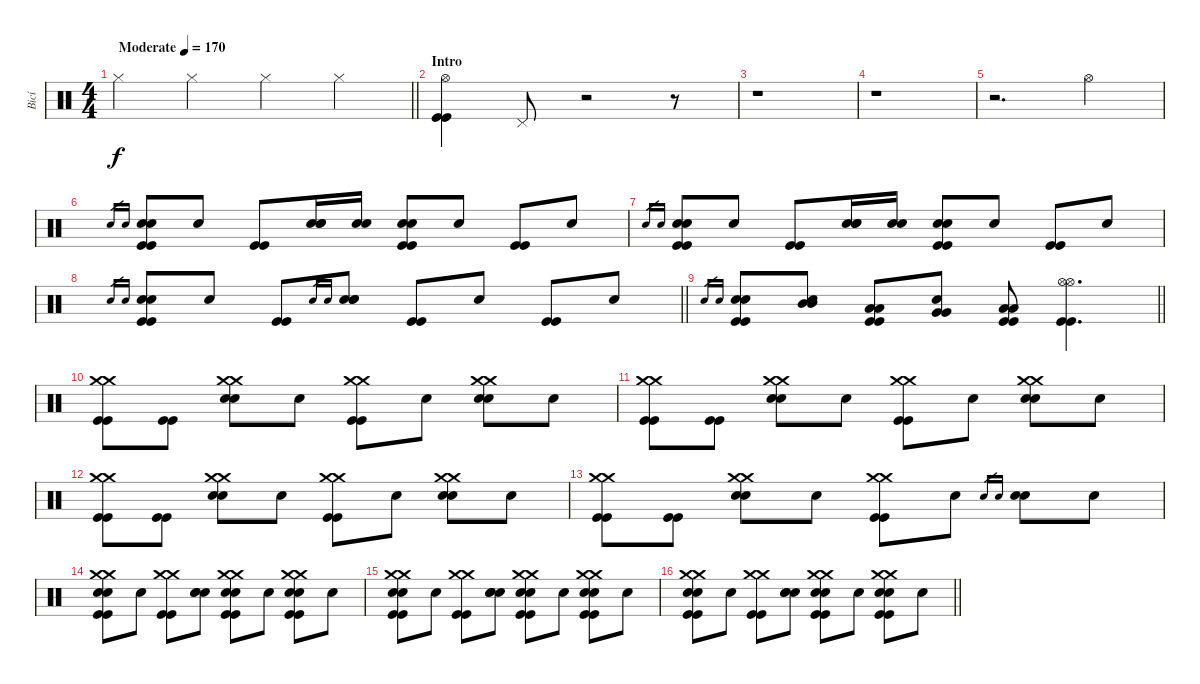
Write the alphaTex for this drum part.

\track ("Bicí" "Bicí") {instrument percussion}
\staff {score}
\articulation defaults
\ts (4 4)
\tempo (170 "Moderate")
\clef neutral
\barLineRight lightlight
\ks c "Hi-Hat (closed)".4{dy f} "Hi-Hat (closed)".4 "Hi-Hat (closed)".4 "Hi-Hat (closed)".4
|
\section ("" "Intro")
("Hi-Hat (open)" "Kick (hit)" "Kick (hit)").4 "Pedal Hi-Hat (hit)".8 r.2 r.8 |
r.1 |
r.1 |
r.2{d} "Hi-Hat (open)".4 |
"Electric Snare (hit)".16{gr} "Electric Snare (hit)".16{gr} ("Electric Snare (hit)" "Electric Snare (hit)" "Kick (hit)" "Kick (hit)").8 "Snare (hit)".8 ("Kick (hit)" "Kick (hit)").8 ("Electric Snare (hit)" "Electric Snare (hit)" "Snare (hit)").16 ("Electric Snare (hit)" "Electric Snare (hit)").16 ("Electric Snare (hit)" "Electric Snare (hit)" "Kick (hit)" "Kick (hit)").8 "Snare (hit)".8 ("Kick (hit)" "Kick (hit)").8 "Snare (hit)".8 |
"Electric Snare (hit)".16{gr} "Electric Snare (hit)".16{gr} ("Electric Snare (hit)" "Electric Snare (hit)" "Kick (hit)" "Kick (hit)").8 "Snare (hit)".8 ("Kick (hit)" "Kick (hit)").8 ("Electric Snare (hit)" "Electric Snare (hit)" "Snare (hit)").16 ("Electric Snare (hit)" "Electric Snare (hit)").16 ("Electric Snare (hit)" "Electric Snare (hit)" "Kick (hit)" "Kick (hit)").8 "Snare (hit)".8 ("Kick (hit)" "Kick (hit)").8 "Snare (hit)".8 |
\barLineRight lightlight "Electric Snare (hit)".16{gr} "Electric Snare (hit)".16{gr}
("Electric Snare (hit)" "Electric Snare (hit)" "Kick (hit)" "Kick (hit)").8 "Snare (hit)".8 ("Kick (hit)" "Kick (hit)").8 "Electric Snare (hit)".16{gr} "Electric Snare (hit)".16{gr} ("Electric Snare (hit)" "Electric Snare (hit)" "Snare (hit)").8 ("Kick (hit)" "Kick (hit)").8 "Snare (hit)".8 ("Kick (hit)" "Kick (hit)").8 "Snare (hit)".8 |
\barLineRight lightlight "Electric Snare (hit)".16{gr} "Electric Snare (hit)".16{gr}
("Electric Snare (hit)" "Electric Snare (hit)" "Kick (hit)" "Kick (hit)").8 ("Mid Tom (hit)" "Mid Tom (hit)" "Snare (hit)").8 ("Low Tom (hit)" "Low Tom (hit)" "Kick (hit)" "Kick (hit)").8 ("Very Low Tom (hit)" "Very Low Tom (hit)" "Snare (hit)").8 ("Low Floor Tom (hit)" "Low Floor Tom (hit)" "Kick (hit)" "Kick (hit)").8 ("Hi-Hat (open)" "Hi-Hat (open)" "Kick (hit)" "Kick (hit)").4{d} |
\section ("" "")
("Crash medium (hit)" "Crash medium (hit)" "Kick (hit)" "Kick (hit)").8 ("Kick (hit)" "Kick (hit)").8 ("Crash medium (hit)" "Crash medium (hit)" "Electric Snare (hit)" "Electric Snare (hit)").8 "Snare (hit)".8 ("Crash medium (hit)" "Crash medium (hit)" "Kick (hit)" "Kick (hit)").8 "Snare (hit)".8 ("Crash medium (hit)" "Crash medium (hit)" "Electric Snare (hit)" "Electric Snare (hit)").8 "Snare (hit)".8 |
("Crash medium (hit)" "Crash medium (hit)" "Kick (hit)" "Kick (hit)").8 ("Kick (hit)" "Kick (hit)").8 ("Crash medium (hit)" "Crash medium (hit)" "Electric Snare (hit)" "Electric Snare (hit)").8 "Snare (hit)".8 ("Crash medium (hit)" "Crash medium (hit)" "Kick (hit)" "Kick (hit)").8 "Snare (hit)".8 ("Crash medium (hit)" "Crash medium (hit)" "Electric Snare (hit)" "Electric Snare (hit)").8 "Snare (hit)".8 |
("Crash medium (hit)" "Crash medium (hit)" "Kick (hit)" "Kick (hit)").8 ("Kick (hit)" "Kick (hit)").8 ("Crash medium (hit)" "Crash medium (hit)" "Electric Snare (hit)" "Electric Snare (hit)").8 "Snare (hit)".8 ("Crash medium (hit)" "Crash medium (hit)" "Kick (hit)" "Kick (hit)").8 "Snare (hit)".8 ("Crash medium (hit)" "Crash medium (hit)" "Electric Snare (hit)" "Electric Snare (hit)").8 "Snare (hit)".8 |
("Crash medium (hit)" "Crash medium (hit)" "Kick (hit)" "Kick (hit)").8 ("Kick (hit)" "Kick (hit)").8 ("Crash medium (hit)" "Crash medium (hit)" "Electric Snare (hit)" "Electric Snare (hit)").8 "Snare (hit)".8 ("Crash medium (hit)" "Crash medium (hit)" "Kick (hit)" "Kick (hit)").8 "Snare (hit)".8 "Electric Snare (hit)".16{gr} "Electric Snare (hit)".16{gr} ("Electric Snare (hit)" "Electric Snare (hit)").8 "Snare (hit)".8 |
("Crash medium (hit)" "Crash medium (hit)" "Electric Snare (hit)" "Electric Snare (hit)" "Kick (hit)" "Kick (hit)").8 "Snare (hit)".8 ("Crash medium (hit)" "Crash medium (hit)" "Kick (hit)" "Kick (hit)").8 ("Electric Snare (hit)" "Electric Snare (hit)" "Snare (hit)").8 ("Crash medium (hit)" "Crash medium (hit)" "Electric Snare (hit)" "Electric Snare (hit)" "Kick (hit)" "Kick (hit)").8 "Snare (hit)".8 ("Crash medium (hit)" "Crash medium (hit)" "Electric Snare (hit)" "Electric Snare (hit)" "Kick (hit)" "Kick (hit)").8 "Snare (hit)".8 |
("Crash medium (hit)" "Crash medium (hit)" "Electric Snare (hit)" "Electric Snare (hit)" "Kick (hit)" "Kick (hit)").8 "Snare (hit)".8 ("Crash medium (hit)" "Crash medium (hit)" "Kick (hit)" "Kick (hit)").8 ("Electric Snare (hit)" "Electric Snare (hit)" "Snare (hit)").8 ("Crash medium (hit)" "Crash medium (hit)" "Electric Snare (hit)" "Electric Snare (hit)" "Kick (hit)" "Kick (hit)").8 "Snare (hit)".8 ("Crash medium (hit)" "Crash medium (hit)" "Electric Snare (hit)" "Electric Snare (hit)" "Kick (hit)" "Kick (hit)").8 "Snare (hit)".8 |
\barLineRight lightlight
("Crash medium (hit)" "Crash medium (hit)" "Electric Snare (hit)" "Electric Snare (hit)" "Kick (hit)" "Kick (hit)").8 "Snare (hit)".8 ("Crash medium (hit)" "Crash medium (hit)" "Kick (hit)" "Kick (hit)").8 ("Electric Snare (hit)" "Electric Snare (hit)" "Snare (hit)").8 ("Crash medium (hit)" "Crash medium (hit)" "Electric Snare (hit)" "Electric Snare (hit)" "Kick (hit)" "Kick (hit)").8 "Snare (hit)".8 ("Crash medium (hit)" "Crash medium (hit)" "Electric Snare (hit)" "Electric Snare (hit)" "Kick (hit)" "Kick (hit)").8 "Snare (hit)".8
